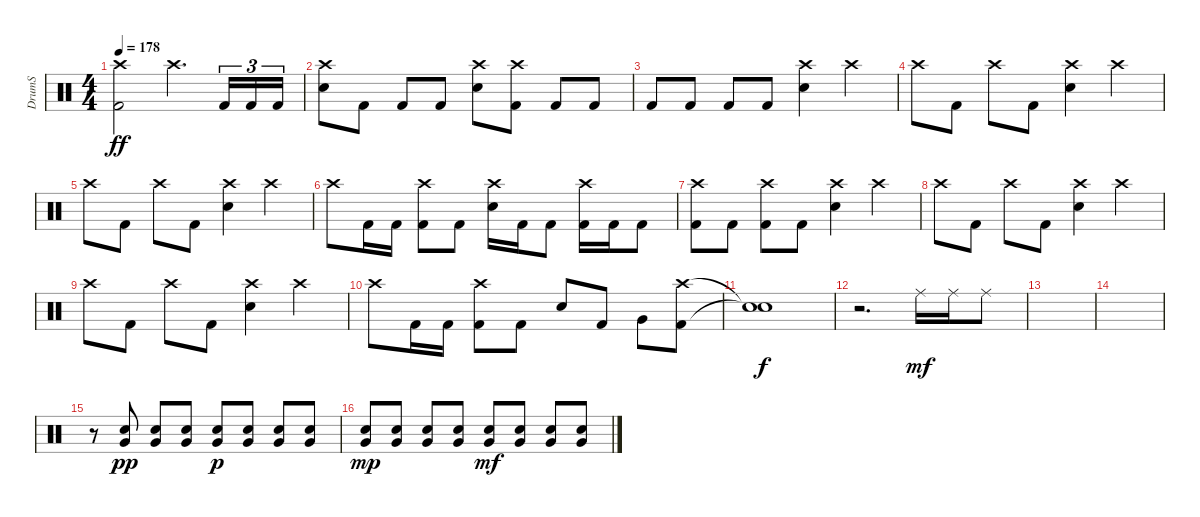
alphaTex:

\track ("DrumS" "DrumS") {instrument percussion}
\staff {score}
\articulation defaults
\ts (4 4)
\tempo 178
\clef neutral
\ks c
("Crash high (hit)" "Kick (hit) 2").2{dy ff} "Crash high (hit)".4{d} "Kick (hit) 2".16{tu (3 2)} "Kick (hit) 2".16{tu (3 2)} "Kick (hit) 2".16{tu (3 2)} |
("Crash high (hit)" "Electric Snare (hit)").8 "Kick (hit) 2".8 "Kick (hit) 2".8 "Kick (hit) 2".8 ("Crash high (hit)" "Electric Snare (hit)").8 ("Crash high (hit)" "Kick (hit) 2").8 "Kick (hit) 2".8 "Kick (hit) 2".8 |
"Kick (hit) 2".8 "Kick (hit) 2".8 "Kick (hit) 2".8 "Kick (hit) 2".8 ("Crash high (hit)" "Electric Snare (hit)").4 "Crash high (hit)".4 |
"Crash high (hit)".8 "Kick (hit) 2".8 "Crash high (hit)".8 "Kick (hit) 2".8 ("Crash high (hit)" "Electric Snare (hit)").4 "Crash high (hit)".4 |
"Crash high (hit)".8 "Kick (hit) 2".8 "Crash high (hit)".8 "Kick (hit) 2".8 ("Crash high (hit)" "Electric Snare (hit)").4 "Crash high (hit)".4 |
"Crash high (hit)".8 "Kick (hit) 2".16 "Kick (hit) 2".16 ("Crash high (hit)" "Kick (hit) 2").8 "Kick (hit) 2".8 ("Crash high (hit)" "Electric Snare (hit)").16 "Kick (hit) 2".16 "Kick (hit) 2".8 ("Crash high (hit)" "Kick (hit) 2").16 "Kick (hit) 2".16 "Kick (hit) 2".8 |
("Crash high (hit)" "Kick (hit) 2").8 "Kick (hit) 2".8 ("Crash high (hit)" "Kick (hit) 2").8 "Kick (hit) 2".8 ("Crash high (hit)" "Electric Snare (hit)").4 "Crash high (hit)".4 |
"Crash high (hit)".8 "Kick (hit) 2".8 "Crash high (hit)".8 "Kick (hit) 2".8 ("Crash high (hit)" "Electric Snare (hit)").4 "Crash high (hit)".4 |
"Crash high (hit)".8 "Kick (hit) 2".8 "Crash high (hit)".8 "Kick (hit) 2".8 ("Crash high (hit)" "Electric Snare (hit)").4 "Crash high (hit)".4 |
"Crash high (hit)".8 "Kick (hit) 2".16 "Kick (hit) 2".16 ("Crash high (hit)" "Kick (hit) 2").8 "Kick (hit) 2".8 "Electric Snare (hit)".8 "Kick (hit) 2".8 "Very Low Tom (hit)".8 ("Crash high (hit)" "Kick (hit) 2").8 |
("Snare (hit)"{t} "Snare (hit)"{t}).1{dy f} |
r.2{d} "Ride (middle)".16{dy mf} "Ride (middle)".16 "Ride (middle)".8 |
|
|
r.8 ("Very Low Tom (hit)" "Electric Snare (hit)").8{dy pp} ("Very Low Tom (hit)" "Electric Snare (hit)").8 ("Very Low Tom (hit)" "Electric Snare (hit)").8 ("Very Low Tom (hit)" "Electric Snare (hit)").8{dy p} ("Very Low Tom (hit)" "Electric Snare (hit)").8 ("Very Low Tom (hit)" "Electric Snare (hit)").8 ("Very Low Tom (hit)" "Electric Snare (hit)").8 |
("Very Low Tom (hit)" "Electric Snare (hit)").8{dy mp} ("Very Low Tom (hit)" "Electric Snare (hit)").8 ("Very Low Tom (hit)" "Electric Snare (hit)").8 ("Very Low Tom (hit)" "Electric Snare (hit)").8 ("Very Low Tom (hit)" "Electric Snare (hit)").8{dy mf} ("Very Low Tom (hit)" "Electric Snare (hit)").8 ("Very Low Tom (hit)" "Electric Snare (hit)").8 ("Very Low Tom (hit)" "Electric Snare (hit)").8
